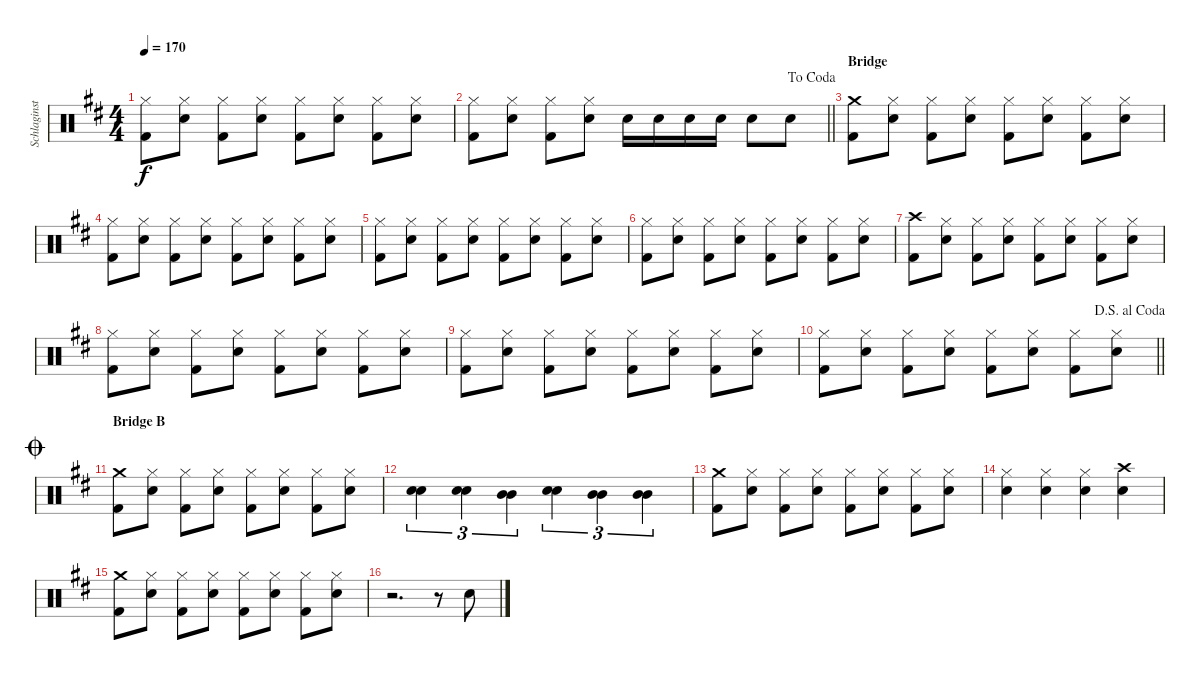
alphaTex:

\track ("Schlaginstrumente - Auswahl" "Schlaginst") {instrument percussion}
\staff {score}
\articulation defaults
\ts (4 4)
\tempo 170
\clef neutral
\ks d
("Hi-Hat (closed)" "Kick (hit) 2").8{dy f} ("Hi-Hat (closed)" "Snare (hit) 2").8 ("Hi-Hat (closed)" "Kick (hit) 2").8 ("Hi-Hat (closed)" "Snare (hit) 2").8 ("Hi-Hat (closed)" "Kick (hit) 2").8 ("Hi-Hat (closed)" "Snare (hit) 2").8 ("Hi-Hat (closed)" "Kick (hit) 2").8 ("Hi-Hat (closed)" "Snare (hit) 2").8 |
\jump dacoda
\barLineRight lightlight
("Hi-Hat (closed)" "Kick (hit) 2").8 ("Hi-Hat (closed)" "Snare (hit) 2").8 ("Hi-Hat (closed)" "Kick (hit) 2").8 ("Hi-Hat (closed)" "Snare (hit) 2").8 "Snare (hit) 2".16 "Snare (hit) 2".16 "Snare (hit) 2".16 "Snare (hit) 2".16 "Snare (hit) 2".8 "Snare (hit) 2".8 |
\section ("" "Bridge")
("Crash medium (hit)" "Kick (hit) 2").8 ("Hi-Hat (closed)" "Snare (hit) 2").8 ("Hi-Hat (closed)" "Kick (hit) 2").8 ("Hi-Hat (closed)" "Snare (hit) 2").8 ("Hi-Hat (closed)" "Kick (hit) 2").8 ("Hi-Hat (closed)" "Snare (hit) 2").8 ("Hi-Hat (closed)" "Kick (hit) 2").8 ("Hi-Hat (closed)" "Snare (hit) 2").8 |
("Hi-Hat (closed)" "Kick (hit) 2").8 ("Hi-Hat (closed)" "Snare (hit) 2").8 ("Hi-Hat (closed)" "Kick (hit) 2").8 ("Hi-Hat (closed)" "Snare (hit) 2").8 ("Hi-Hat (closed)" "Kick (hit) 2").8 ("Hi-Hat (closed)" "Snare (hit) 2").8 ("Hi-Hat (closed)" "Kick (hit) 2").8 ("Hi-Hat (closed)" "Snare (hit) 2").8 |
("Hi-Hat (closed)" "Kick (hit) 2").8 ("Hi-Hat (closed)" "Snare (hit) 2").8 ("Hi-Hat (closed)" "Kick (hit) 2").8 ("Hi-Hat (closed)" "Snare (hit) 2").8 ("Hi-Hat (closed)" "Kick (hit) 2").8 ("Hi-Hat (closed)" "Snare (hit) 2").8 ("Hi-Hat (closed)" "Kick (hit) 2").8 ("Hi-Hat (closed)" "Snare (hit) 2").8 |
("Hi-Hat (closed)" "Kick (hit) 2").8 ("Hi-Hat (closed)" "Snare (hit) 2").8 ("Hi-Hat (closed)" "Kick (hit) 2").8 ("Hi-Hat (closed)" "Snare (hit) 2").8 ("Hi-Hat (closed)" "Kick (hit) 2").8 ("Hi-Hat (closed)" "Snare (hit) 2").8 ("Hi-Hat (closed)" "Kick (hit) 2").8 ("Hi-Hat (closed)" "Snare (hit) 2").8 |
("Crash high (hit)" "Kick (hit) 2").8 ("Hi-Hat (closed)" "Snare (hit) 2").8 ("Hi-Hat (closed)" "Kick (hit) 2").8 ("Hi-Hat (closed)" "Snare (hit) 2").8 ("Hi-Hat (closed)" "Kick (hit) 2").8 ("Hi-Hat (closed)" "Snare (hit) 2").8 ("Hi-Hat (closed)" "Kick (hit) 2").8 ("Hi-Hat (closed)" "Snare (hit) 2").8 |
("Hi-Hat (closed)" "Kick (hit) 2").8 ("Hi-Hat (closed)" "Snare (hit) 2").8 ("Hi-Hat (closed)" "Kick (hit) 2").8 ("Hi-Hat (closed)" "Snare (hit) 2").8 ("Hi-Hat (closed)" "Kick (hit) 2").8 ("Hi-Hat (closed)" "Snare (hit) 2").8 ("Hi-Hat (closed)" "Kick (hit) 2").8 ("Hi-Hat (closed)" "Snare (hit) 2").8 |
("Hi-Hat (closed)" "Kick (hit) 2").8 ("Hi-Hat (closed)" "Snare (hit) 2").8 ("Hi-Hat (closed)" "Kick (hit) 2").8 ("Hi-Hat (closed)" "Snare (hit) 2").8 ("Hi-Hat (closed)" "Kick (hit) 2").8 ("Hi-Hat (closed)" "Snare (hit) 2").8 ("Hi-Hat (closed)" "Kick (hit) 2").8 ("Hi-Hat (closed)" "Snare (hit) 2").8 |
\jump dalsegnoalcoda
\barLineRight lightlight
("Hi-Hat (closed)" "Kick (hit) 2").8 ("Hi-Hat (closed)" "Snare (hit) 2").8 ("Hi-Hat (closed)" "Kick (hit) 2").8 ("Hi-Hat (closed)" "Snare (hit) 2").8 ("Hi-Hat (closed)" "Kick (hit) 2").8 ("Hi-Hat (closed)" "Snare (hit) 2").8 ("Hi-Hat (closed)" "Kick (hit) 2").8 ("Hi-Hat (closed)" "Snare (hit) 2").8 |
\section ("" "Bridge B")
\jump coda
("Crash medium (hit)" "Kick (hit) 2").8 ("Hi-Hat (closed)" "Snare (hit) 2").8 ("Hi-Hat (closed)" "Kick (hit) 2").8 ("Hi-Hat (closed)" "Snare (hit) 2").8 ("Hi-Hat (closed)" "Kick (hit) 2").8 ("Hi-Hat (closed)" "Snare (hit) 2").8 ("Hi-Hat (closed)" "Kick (hit) 2").8 ("Hi-Hat (closed)" "Snare (hit) 2").8 |
("Snare (hit) 2" "Snare (hit) 2").4{tu (3 2) bd 120} ("Snare (hit) 2" "Snare (hit) 2").4{tu (3 2) bd 120} ("Mid Tom (hit)" "Mid Tom (hit)").4{tu (3 2) bd 120} ("Snare (hit) 2" "Snare (hit) 2").4{tu (3 2) bd 120} ("Mid Tom (hit)" "Mid Tom (hit)").4{tu (3 2) bd 120} ("Mid Tom (hit)" "Mid Tom (hit)").4{tu (3 2) bd 120} |
("Crash medium (hit)" "Kick (hit) 2").8 ("Hi-Hat (closed)" "Snare (hit) 2").8 ("Hi-Hat (closed)" "Kick (hit) 2").8 ("Hi-Hat (closed)" "Snare (hit) 2").8 ("Hi-Hat (closed)" "Kick (hit) 2").8 ("Hi-Hat (closed)" "Snare (hit) 2").8 ("Hi-Hat (closed)" "Kick (hit) 2").8 ("Hi-Hat (closed)" "Snare (hit) 2").8 |
("Hi-Hat (closed)" "Snare (hit) 2").4 ("Hi-Hat (closed)" "Snare (hit) 2").4 ("Hi-Hat (closed)" "Snare (hit) 2").4 ("Crash high (hit)" "Snare (hit) 2").4 |
("Crash medium (hit)" "Kick (hit) 2").8 ("Hi-Hat (closed)" "Snare (hit) 2").8 ("Hi-Hat (closed)" "Kick (hit) 2").8 ("Hi-Hat (closed)" "Snare (hit) 2").8 ("Hi-Hat (closed)" "Kick (hit) 2").8 ("Hi-Hat (closed)" "Snare (hit) 2").8 ("Hi-Hat (closed)" "Kick (hit) 2").8 ("Hi-Hat (closed)" "Snare (hit) 2").8 |
r.2{d} r.8 "Snare (hit) 2".8
